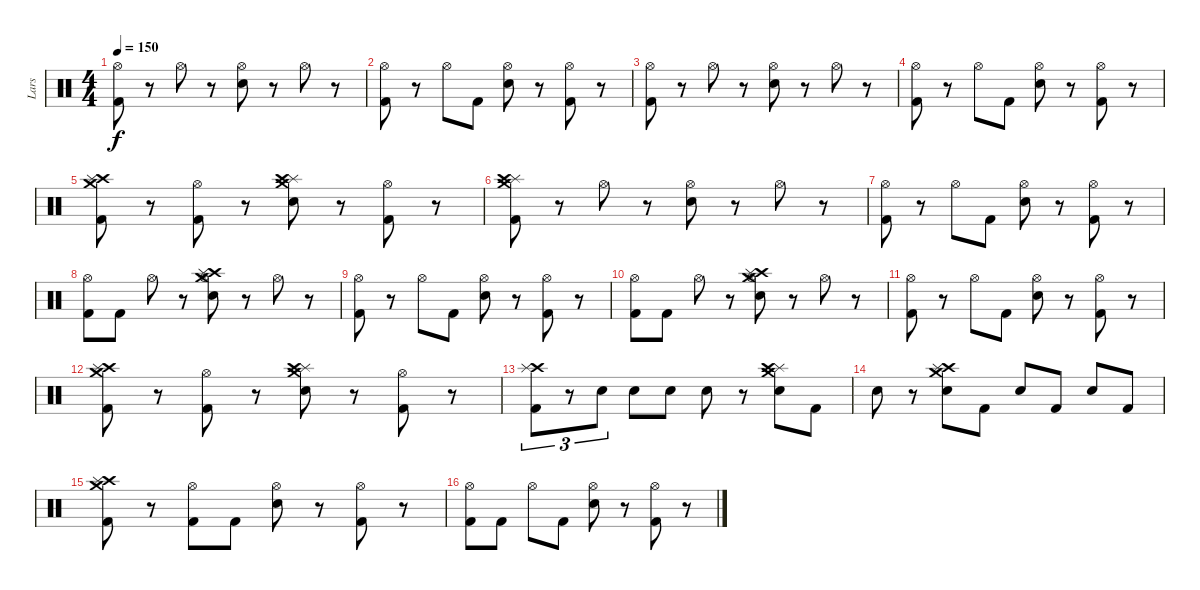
\track ("Lars" "Lars") {instrument percussion}
\staff {score}
\articulation defaults
\ts (4 4)
\tempo 150
\clef neutral
\ks c
("Hi-Hat (open)" "Kick (hit) 2").8{dy f} r.8 "Hi-Hat (open)".8 r.8 ("Hi-Hat (open)" "Snare (hit) 2").8 r.8 "Hi-Hat (open)".8 r.8 |
("Hi-Hat (open)" "Kick (hit) 2").8 r.8 "Hi-Hat (open)".8 "Kick (hit) 2".8 ("Hi-Hat (open)" "Snare (hit) 2").8 r.8 ("Hi-Hat (open)" "Kick (hit) 2").8 r.8 |
("Hi-Hat (open)" "Kick (hit) 2").8 r.8 "Hi-Hat (open)".8 r.8 ("Hi-Hat (open)" "Snare (hit) 2").8 r.8 "Hi-Hat (open)".8 r.8 |
("Hi-Hat (open)" "Kick (hit) 2").8 r.8 "Hi-Hat (open)".8 "Kick (hit) 2".8 ("Hi-Hat (open)" "Snare (hit) 2").8 r.8 ("Hi-Hat (open)" "Kick (hit) 2").8 r.8 |
("Crash medium (hit)" "Crash high (hit)" "Splash (hit)" "Kick (hit) 2").8 r.8 ("Kick (hit) 2" "Hi-Hat (open)").8 r.8 ("Crash medium (hit)" "Splash (hit)" "Crash high (hit)" "Snare (hit) 2").8 r.8 ("Kick (hit) 2" "Hi-Hat (open)").8 r.8 |
("Splash (hit)" "Crash medium (hit)" "Crash high (hit)" "Kick (hit) 2").8 r.8 "Hi-Hat (open)".8 r.8 ("Hi-Hat (open)" "Snare (hit) 2").8 r.8 "Hi-Hat (open)".8 r.8 |
("Hi-Hat (open)" "Kick (hit) 2").8 r.8 "Hi-Hat (open)".8 "Kick (hit) 2".8 ("Hi-Hat (open)" "Snare (hit) 2").8 r.8 ("Hi-Hat (open)" "Kick (hit) 2").8 r.8 |
("Hi-Hat (open)" "Kick (hit) 2").8 "Kick (hit) 2".8 "Hi-Hat (open)".8 r.8 ("Crash high (hit)" "Crash medium (hit)" "Splash (hit)" "Hi-Hat (open)" "Snare (hit) 2").8 r.8 "Hi-Hat (open)".8 r.8 |
("Hi-Hat (open)" "Kick (hit) 2").8 r.8 "Hi-Hat (open)".8 "Kick (hit) 2".8 ("Hi-Hat (open)" "Snare (hit) 2").8 r.8 ("Hi-Hat (open)" "Kick (hit) 2").8 r.8 |
("Hi-Hat (open)" "Kick (hit) 2").8 "Kick (hit) 2".8 "Hi-Hat (open)".8 r.8 ("Crash high (hit)" "Crash medium (hit)" "Splash (hit)" "Hi-Hat (open)" "Snare (hit) 2").8 r.8 "Hi-Hat (open)".8 r.8 |
("Hi-Hat (open)" "Kick (hit) 2").8 r.8 "Hi-Hat (open)".8 "Kick (hit) 2".8 ("Hi-Hat (open)" "Snare (hit) 2").8 r.8 ("Hi-Hat (open)" "Kick (hit) 2").8 r.8 |
("Crash medium (hit)" "Crash high (hit)" "Splash (hit)" "Kick (hit) 2").8 r.8 ("Kick (hit) 2" "Hi-Hat (open)").8 r.8 ("Crash medium (hit)" "Splash (hit)" "Crash high (hit)" "Snare (hit) 2").8 r.8 ("Kick (hit) 2" "Hi-Hat (open)").8 r.8 |
("Kick (hit) 2" "Crash high (hit)" "Splash (hit)").8{tu (3 2)} r.8{tu (3 2)} "Snare (hit) 2".8{tu (3 2)} "Snare (hit) 2".8 "Snare (hit) 2".8 "Snare (hit) 2".8 r.8 ("Crash medium (hit)" "Splash (hit)" "Crash high (hit)" "Snare (hit) 2").8 "Kick (hit) 2".8 |
"Snare (hit) 2".8 r.8 ("Crash medium (hit)" "Crash high (hit)" "Splash (hit)" "Snare (hit) 2").8 "Kick (hit) 2".8 "Snare (hit) 2".8 "Kick (hit) 2".8 "Snare (hit) 2".8 "Kick (hit) 2".8 |
("Crash high (hit)" "Splash (hit)" "Crash medium (hit)" "Kick (hit) 2").8 r.8 ("Hi-Hat (open)" "Kick (hit) 2").8 "Kick (hit) 2".8 ("Hi-Hat (open)" "Snare (hit) 2").8 r.8 ("Hi-Hat (open)" "Kick (hit) 2").8 r.8 |
("Hi-Hat (open)" "Kick (hit) 2").8 "Kick (hit) 2".8 "Hi-Hat (open)".8 "Kick (hit) 2".8 ("Hi-Hat (open)" "Snare (hit) 2").8 r.8 ("Hi-Hat (open)" "Kick (hit) 2").8 r.8
